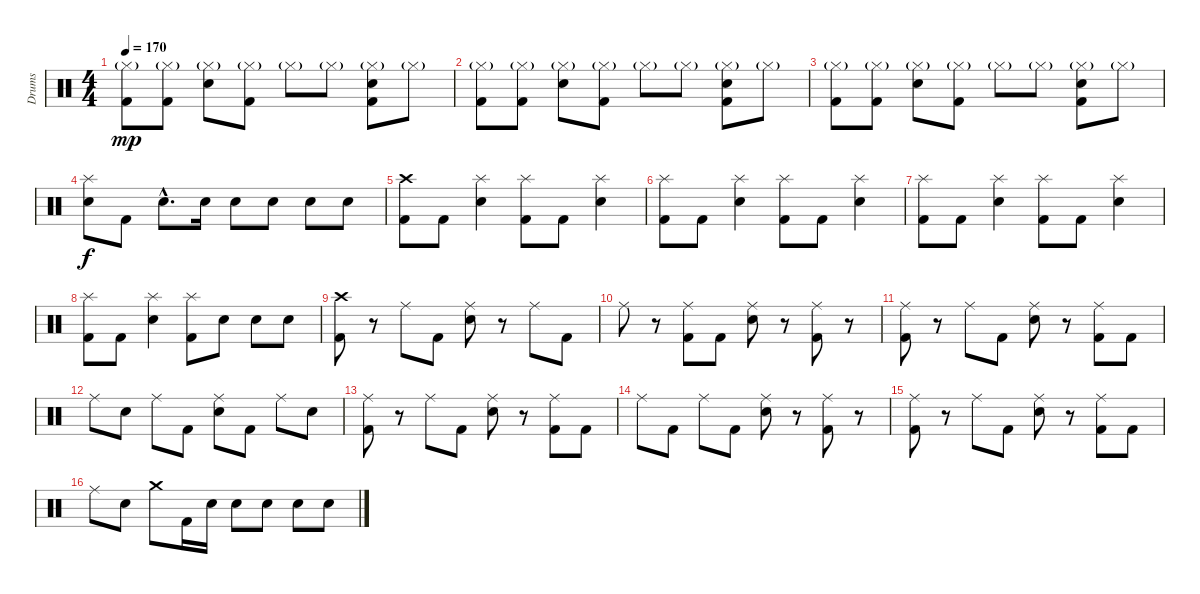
\track ("Drums" "Drums") {instrument percussion}
\staff {score}
\articulation defaults
\ts (4 4)
\tempo 170
\clef neutral
\ks c
("Hi-Hat (closed)"{g} "Kick (hit) 2").8{dy mp} ("Hi-Hat (closed)"{g} "Kick (hit) 2").8 ("Hi-Hat (closed)"{g} "Electric Snare (hit)").8 ("Hi-Hat (closed)"{g} "Kick (hit) 2").8 "Hi-Hat (closed)"{g}.8 "Hi-Hat (closed)"{g}.8 ("Hi-Hat (closed)"{g} "Electric Snare (hit)" "Kick (hit) 2").8 "Hi-Hat (closed)"{g}.8 |
("Hi-Hat (closed)"{g} "Kick (hit) 2").8 ("Hi-Hat (closed)"{g} "Kick (hit) 2").8 ("Hi-Hat (closed)"{g} "Electric Snare (hit)").8 ("Hi-Hat (closed)"{g} "Kick (hit) 2").8 "Hi-Hat (closed)"{g}.8 "Hi-Hat (closed)"{g}.8 ("Hi-Hat (closed)"{g} "Electric Snare (hit)" "Kick (hit) 2").8 "Hi-Hat (closed)"{g}.8 |
("Hi-Hat (closed)"{g} "Kick (hit) 2").8 ("Hi-Hat (closed)"{g} "Kick (hit) 2").8 ("Hi-Hat (closed)"{g} "Electric Snare (hit)").8 ("Hi-Hat (closed)"{g} "Kick (hit) 2").8 "Hi-Hat (closed)"{g}.8 "Hi-Hat (closed)"{g}.8 ("Hi-Hat (closed)"{g} "Electric Snare (hit)" "Kick (hit) 2").8 "Hi-Hat (closed)"{g}.8 |
("Splash (hit)" "Electric Snare (hit)").8{dy f} "Kick (hit) 2".8 "Electric Snare (hit)"{hac}.8{d} "Electric Snare (hit)".16 "Electric Snare (hit)".8 "Electric Snare (hit)".8 "Electric Snare (hit)".8 "Electric Snare (hit)".8 |
("Crash high (hit)" "Kick (hit) 2").8 "Kick (hit) 2".8 ("Splash (hit)" "Electric Snare (hit)").4 ("Splash (hit)" "Kick (hit) 2").8 "Kick (hit) 2".8 ("Splash (hit)" "Electric Snare (hit)").4 |
("Splash (hit)" "Kick (hit) 2").8 "Kick (hit) 2".8 ("Splash (hit)" "Electric Snare (hit)").4 ("Splash (hit)" "Kick (hit) 2").8 "Kick (hit) 2".8 ("Splash (hit)" "Electric Snare (hit)").4 |
("Splash (hit)" "Kick (hit) 2").8 "Kick (hit) 2".8 ("Splash (hit)" "Electric Snare (hit)").4 ("Splash (hit)" "Kick (hit) 2").8 "Kick (hit) 2".8 ("Splash (hit)" "Electric Snare (hit)").4 |
("Splash (hit)" "Kick (hit) 2").8 "Kick (hit) 2".8 ("Splash (hit)" "Electric Snare (hit)").4 ("Splash (hit)" "Kick (hit) 2").8 "Electric Snare (hit)".8 "Electric Snare (hit)".8 "Electric Snare (hit)".8 |
("Crash high (hit)" "Kick (hit) 2").8 r.8 "Ride (middle)".8 "Kick (hit) 2".8 ("Ride (middle)" "Electric Snare (hit)").8 r.8 "Ride (middle)".8 "Kick (hit) 2".8 |
"Ride (middle)".8 r.8 ("Ride (middle)" "Kick (hit) 2").8 "Kick (hit) 2".8 ("Ride (middle)" "Electric Snare (hit)").8 r.8 ("Ride (middle)" "Kick (hit) 2").8 r.8 |
("Ride (middle)" "Kick (hit) 2").8 r.8 "Ride (middle)".8 "Kick (hit) 2".8 ("Ride (middle)" "Electric Snare (hit)").8 r.8 ("Ride (middle)" "Kick (hit) 2").8 "Kick (hit) 2".8 |
"Ride (middle)".8 "Electric Snare (hit)".8 "Ride (middle)".8 "Kick (hit) 2".8 ("Ride (middle)" "Electric Snare (hit)").8 "Kick (hit) 2".8 "Ride (middle)".8 "Electric Snare (hit)".8 |
("Ride (middle)" "Kick (hit) 2").8 r.8 "Ride (middle)".8 "Kick (hit) 2".8 ("Ride (middle)" "Electric Snare (hit)").8 r.8 ("Ride (middle)" "Kick (hit) 2").8 "Kick (hit) 2".8 |
"Ride (middle)".8 "Kick (hit) 2".8 "Ride (middle)".8 "Kick (hit) 2".8 ("Ride (middle)" "Electric Snare (hit)").8 r.8 ("Ride (middle)" "Kick (hit) 2").8 r.8 |
("Ride (middle)" "Kick (hit) 2").8 r.8 "Ride (middle)".8 "Kick (hit) 2".8 ("Ride (middle)" "Electric Snare (hit)").8 r.8 ("Ride (middle)" "Kick (hit) 2").8 "Kick (hit) 2".8 |
"Ride (middle)".8 "Electric Snare (hit)".8 "Crash medium (hit)".8 "Kick (hit) 2".16 "Electric Snare (hit)".16 "Electric Snare (hit)".8 "Electric Snare (hit)".8 "Electric Snare (hit)".8 "Electric Snare (hit)".8
